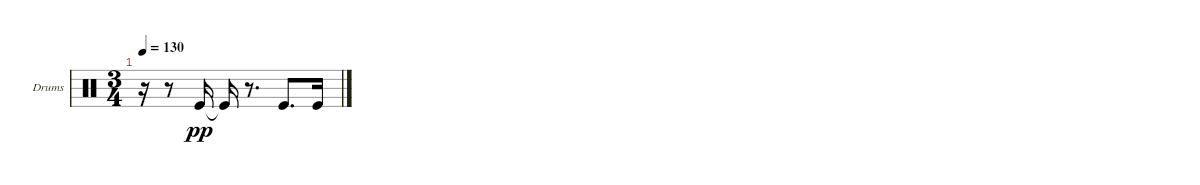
\bracketExtendMode groupsimilarinstruments
\firstSystemTrackNameOrientation horizontal
\otherSystemsTrackNameOrientation horizontal
\track ("Kick" "Drums") {instrument percussion}
\staff {score}
\articulation defaults
\ts (3 4)
\tempo 130
\clef neutral
\ks c
r.16{dy pp} r.8 "Kick (hit)".16 "Kick (hit)"{t}.16 r.8{d} "Kick (hit)".8{d} "Kick (hit)".16
